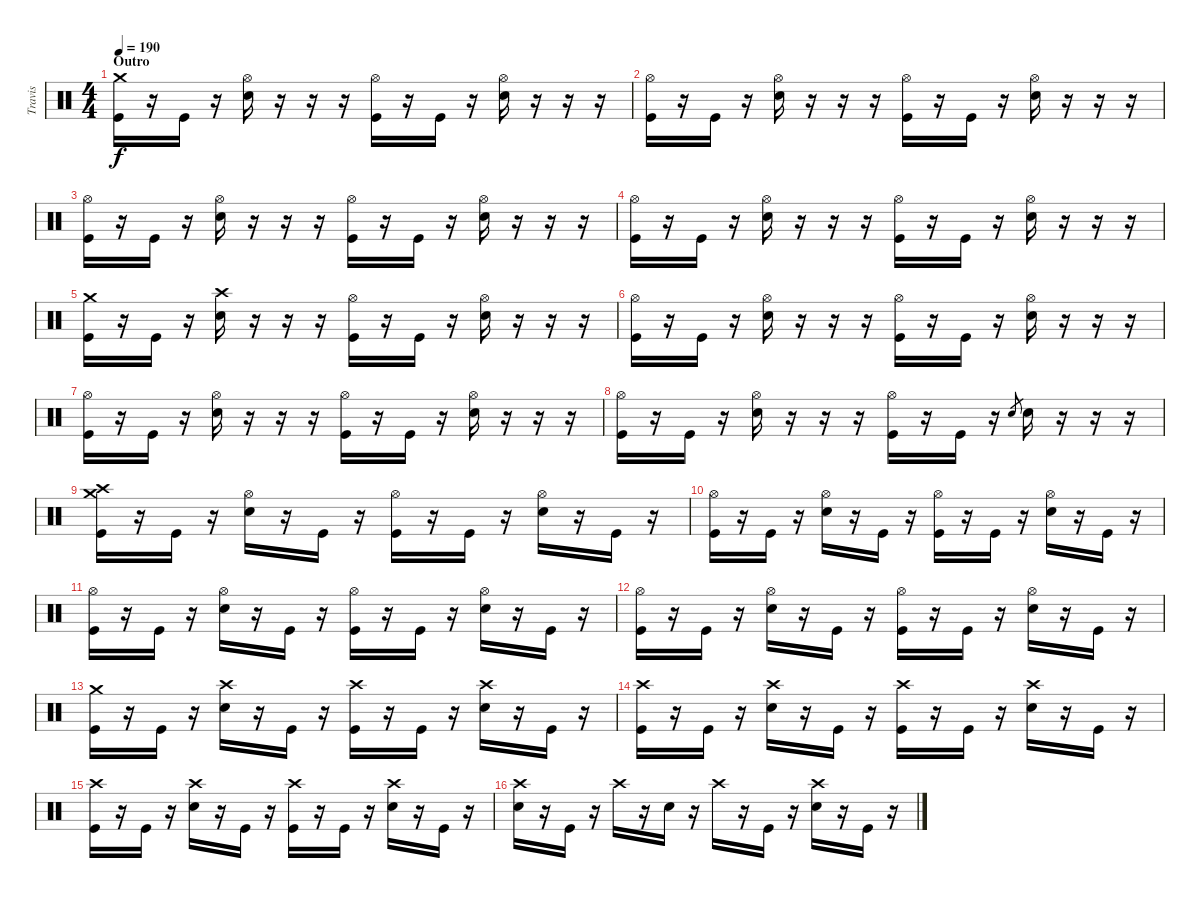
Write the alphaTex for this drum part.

\track ("Travis" "Travis") {instrument percussion}
\staff {score}
\articulation defaults
\ts (4 4)
\section ("" "Outro")
\tempo 190
\clef neutral
\ks c
("Crash medium (hit)" "Kick (hit)").16{dy f} r.16 "Kick (hit)".16 r.16 ("Hi-Hat (open)" "Snare (hit) 2").16 r.16 r.16 r.16 ("Hi-Hat (open)" "Kick (hit)").16 r.16 "Kick (hit)".16 r.16 ("Hi-Hat (open)" "Snare (hit) 2").16 r.16 r.16 r.16 |
("Hi-Hat (open)" "Kick (hit)").16 r.16 "Kick (hit)".16 r.16 ("Hi-Hat (open)" "Snare (hit) 2").16 r.16 r.16 r.16 ("Hi-Hat (open)" "Kick (hit)").16 r.16 "Kick (hit)".16 r.16 ("Hi-Hat (open)" "Snare (hit) 2").16 r.16 r.16 r.16 |
("Hi-Hat (open)" "Kick (hit)").16 r.16 "Kick (hit)".16 r.16 ("Hi-Hat (open)" "Snare (hit) 2").16 r.16 r.16 r.16 ("Hi-Hat (open)" "Kick (hit)").16 r.16 "Kick (hit)".16 r.16 ("Hi-Hat (open)" "Snare (hit) 2").16 r.16 r.16 r.16 |
("Hi-Hat (open)" "Kick (hit)").16 r.16 "Kick (hit)".16 r.16 ("Hi-Hat (open)" "Snare (hit) 2").16 r.16 r.16 r.16 ("Hi-Hat (open)" "Kick (hit)").16 r.16 "Kick (hit)".16 r.16 ("Hi-Hat (open)" "Snare (hit) 2").16 r.16 r.16 r.16 |
("Crash medium (hit)" "Kick (hit)").16 r.16 "Kick (hit)".16 r.16 ("Crash high (hit)" "Snare (hit) 2").16 r.16 r.16 r.16 ("Hi-Hat (open)" "Kick (hit)").16 r.16 "Kick (hit)".16 r.16 ("Hi-Hat (open)" "Snare (hit) 2").16 r.16 r.16 r.16 |
("Hi-Hat (open)" "Kick (hit)").16 r.16 "Kick (hit)".16 r.16 ("Hi-Hat (open)" "Snare (hit) 2").16 r.16 r.16 r.16 ("Hi-Hat (open)" "Kick (hit)").16 r.16 "Kick (hit)".16 r.16 ("Hi-Hat (open)" "Snare (hit) 2").16 r.16 r.16 r.16 |
("Hi-Hat (open)" "Kick (hit)").16 r.16 "Kick (hit)".16 r.16 ("Hi-Hat (open)" "Snare (hit) 2").16 r.16 r.16 r.16 ("Hi-Hat (open)" "Kick (hit)").16 r.16 "Kick (hit)".16 r.16 ("Hi-Hat (open)" "Snare (hit) 2").16 r.16 r.16 r.16 |
("Hi-Hat (open)" "Kick (hit)").16 r.16 "Kick (hit)".16 r.16 ("Hi-Hat (open)" "Snare (hit) 2").16 r.16 r.16 r.16 ("Hi-Hat (open)" "Kick (hit)").16 r.16 "Kick (hit)".16 r.16 "Snare (hit)".8{gr} "Snare (hit) 2".16 r.16 r.16 r.16 |
("Crash medium (hit)" "Crash high (hit)" "Kick (hit)").16 r.16 "Kick (hit)".16 r.16 ("Hi-Hat (open)" "Snare (hit) 2").16 r.16 "Kick (hit)".16 r.16 ("Hi-Hat (open)" "Kick (hit)").16 r.16 "Kick (hit)".16 r.16 ("Hi-Hat (open)" "Snare (hit) 2").16 r.16 "Kick (hit)".16 r.16 |
("Hi-Hat (open)" "Kick (hit)").16 r.16 "Kick (hit)".16 r.16 ("Hi-Hat (open)" "Snare (hit) 2").16 r.16 "Kick (hit)".16 r.16 ("Hi-Hat (open)" "Kick (hit)").16 r.16 "Kick (hit)".16 r.16 ("Hi-Hat (open)" "Snare (hit) 2").16 r.16 "Kick (hit)".16 r.16 |
("Hi-Hat (open)" "Kick (hit)").16 r.16 "Kick (hit)".16 r.16 ("Hi-Hat (open)" "Snare (hit) 2").16 r.16 "Kick (hit)".16 r.16 ("Hi-Hat (open)" "Kick (hit)").16 r.16 "Kick (hit)".16 r.16 ("Hi-Hat (open)" "Snare (hit) 2").16 r.16 "Kick (hit)".16 r.16 |
("Hi-Hat (open)" "Kick (hit)").16 r.16 "Kick (hit)".16 r.16 ("Hi-Hat (open)" "Snare (hit) 2").16 r.16 "Kick (hit)".16 r.16 ("Hi-Hat (open)" "Kick (hit)").16 r.16 "Kick (hit)".16 r.16 ("Hi-Hat (open)" "Snare (hit) 2").16 r.16 "Kick (hit)".16 r.16 |
("Crash medium (hit)" "Kick (hit)").16 r.16 "Kick (hit)".16 r.16 ("Crash high (hit)" "Snare (hit) 2").16 r.16 "Kick (hit)".16 r.16 ("Crash high (hit)" "Kick (hit)").16 r.16 "Kick (hit)".16 r.16 ("Crash high (hit)" "Snare (hit) 2").16 r.16 "Kick (hit)".16 r.16 |
("Crash high (hit)" "Kick (hit)").16 r.16 "Kick (hit)".16 r.16 ("Crash high (hit)" "Snare (hit) 2").16 r.16 "Kick (hit)".16 r.16 ("Crash high (hit)" "Kick (hit)").16 r.16 "Kick (hit)".16 r.16 ("Crash high (hit)" "Snare (hit) 2").16 r.16 "Kick (hit)".16 r.16 |
("Crash high (hit)" "Kick (hit)").16 r.16 "Kick (hit)".16 r.16 ("Crash high (hit)" "Snare (hit) 2").16 r.16 "Kick (hit)".16 r.16 ("Crash high (hit)" "Kick (hit)").16 r.16 "Kick (hit)".16 r.16 ("Crash high (hit)" "Snare (hit) 2").16 r.16 "Kick (hit)".16 r.16 |
("Crash high (hit)" "Snare (hit) 2").16 r.16 "Kick (hit)".16 r.16 "Crash high (hit)".16 r.16 "Snare (hit) 2".16 r.16 "Crash high (hit)".16 r.16 "Kick (hit)".16 r.16 ("Crash high (hit)" "Snare (hit) 2").16 r.16 "Kick (hit)".16 r.16
